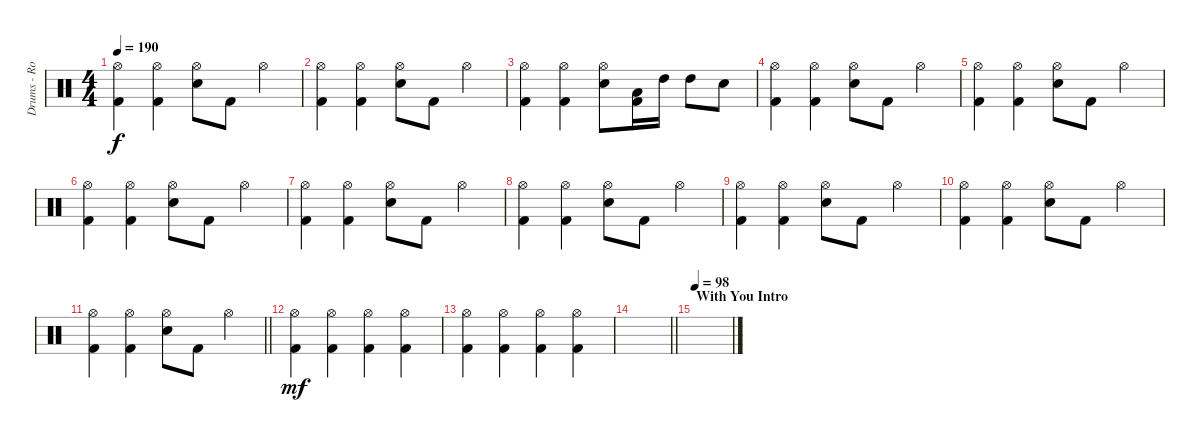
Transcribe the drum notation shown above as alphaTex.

\track ("Drums - Rob Bourdon" "Drums - Ro") {instrument percussion}
\staff {score}
\articulation defaults
\ts (4 4)
\tempo 190
\clef neutral
\ks c
("Hi-Hat (open)" "Kick (hit) 2").4{dy f} ("Hi-Hat (open)" "Kick (hit) 2").4 ("Hi-Hat (open)" "Snare (hit) 2").8 "Kick (hit) 2".8 "Hi-Hat (open)".4 |
("Hi-Hat (open)" "Kick (hit) 2").4 ("Hi-Hat (open)" "Kick (hit) 2").4 ("Hi-Hat (open)" "Snare (hit) 2").8 "Kick (hit) 2".8 "Hi-Hat (open)".4 |
("Hi-Hat (open)" "Kick (hit) 2").4 ("Hi-Hat (open)" "Kick (hit) 2").4 ("Hi-Hat (open)" "Snare (hit) 2").8 ("Low Tom (hit)" "Kick (hit) 2").16 "High Tom (hit)".16 "High Tom (hit)".8 "Snare (hit) 2".8 |
("Hi-Hat (open)" "Kick (hit) 2").4 ("Hi-Hat (open)" "Kick (hit) 2").4 ("Hi-Hat (open)" "Snare (hit) 2").8 "Kick (hit) 2".8 "Hi-Hat (open)".4 |
("Hi-Hat (open)" "Kick (hit) 2").4 ("Hi-Hat (open)" "Kick (hit) 2").4 ("Hi-Hat (open)" "Snare (hit) 2").8 "Kick (hit) 2".8 "Hi-Hat (open)".4 |
("Hi-Hat (open)" "Kick (hit) 2").4 ("Hi-Hat (open)" "Kick (hit) 2").4 ("Hi-Hat (open)" "Snare (hit) 2").8 "Kick (hit) 2".8 "Hi-Hat (open)".4 |
("Hi-Hat (open)" "Kick (hit) 2").4 ("Hi-Hat (open)" "Kick (hit) 2").4 ("Hi-Hat (open)" "Snare (hit) 2").8 "Kick (hit) 2".8 "Hi-Hat (open)".4 |
("Hi-Hat (open)" "Kick (hit) 2").4 ("Hi-Hat (open)" "Kick (hit) 2").4 ("Hi-Hat (open)" "Snare (hit) 2").8 "Kick (hit) 2".8 "Hi-Hat (open)".4 |
("Hi-Hat (open)" "Kick (hit) 2").4 ("Hi-Hat (open)" "Kick (hit) 2").4 ("Hi-Hat (open)" "Snare (hit) 2").8 "Kick (hit) 2".8 "Hi-Hat (open)".4 |
("Hi-Hat (open)" "Kick (hit) 2").4 ("Hi-Hat (open)" "Kick (hit) 2").4 ("Hi-Hat (open)" "Snare (hit) 2").8 "Kick (hit) 2".8 "Hi-Hat (open)".4 |
\barLineRight lightlight
("Hi-Hat (open)" "Kick (hit) 2").4 ("Hi-Hat (open)" "Kick (hit) 2").4 ("Hi-Hat (open)" "Snare (hit) 2").8 "Kick (hit) 2".8 "Hi-Hat (open)".4 |
("Hi-Hat (open)" "Kick (hit) 2").4{dy mf} ("Hi-Hat (open)" "Kick (hit) 2").4 ("Hi-Hat (open)" "Kick (hit) 2").4 ("Hi-Hat (open)" "Kick (hit) 2").4 |
("Hi-Hat (open)" "Kick (hit) 2").4 ("Hi-Hat (open)" "Kick (hit) 2").4 ("Hi-Hat (open)" "Kick (hit) 2").4 ("Hi-Hat (open)" "Kick (hit) 2").4 |
\barLineRight lightlight
|
\section ("" "With You Intro")
\tempo 98
